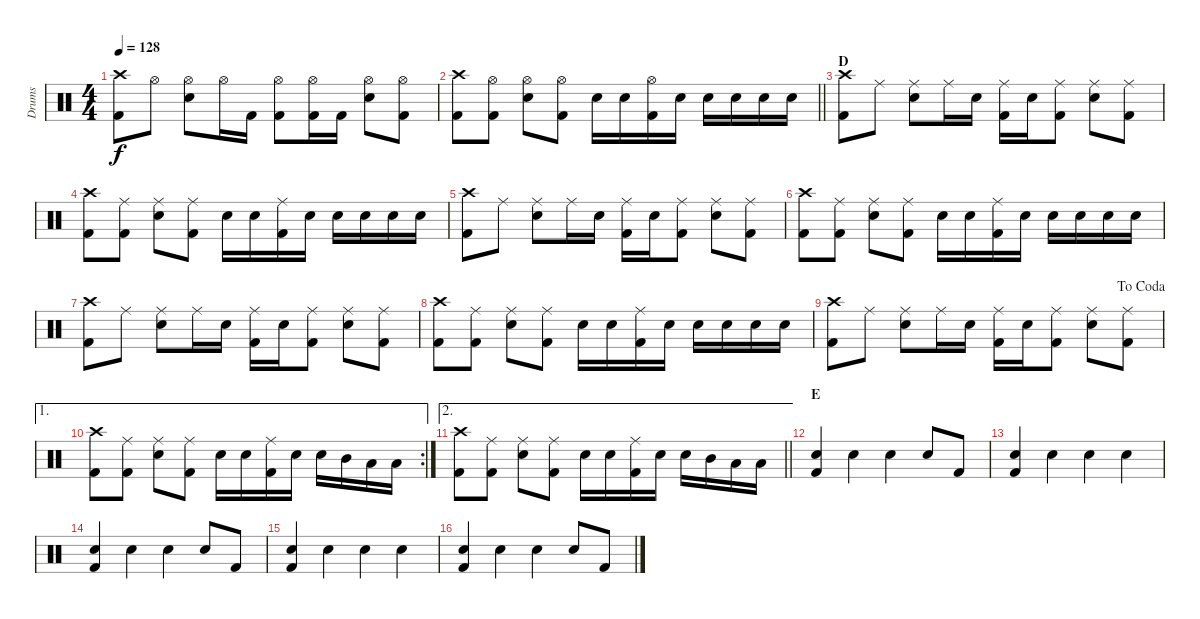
\track ("Drums" "Drums") {instrument percussion}
\staff {score}
\articulation defaults
\ts (4 4)
\tempo 128
\clef neutral
\ks c
("Crash high (hit)" "Kick (hit) 2").8{dy f} "Hi-Hat (open)".8 ("Hi-Hat (open)" "Snare (hit) 2").8 "Hi-Hat (open)".16 "Kick (hit) 2".16 ("Hi-Hat (open)" "Kick (hit) 2").8 ("Hi-Hat (open)" "Kick (hit) 2").16 "Kick (hit) 2".16 ("Hi-Hat (open)" "Snare (hit) 2").8 ("Hi-Hat (open)" "Kick (hit) 2").8 |
\barLineRight lightlight
("Crash high (hit)" "Kick (hit) 2").8 ("Hi-Hat (open)" "Kick (hit) 2").8 ("Hi-Hat (open)" "Snare (hit) 2").8 ("Hi-Hat (open)" "Kick (hit) 2").8 "Snare (hit) 2".16 "Snare (hit) 2".16 ("Hi-Hat (open)" "Kick (hit) 2").16 "Snare (hit) 2".16 "Snare (hit) 2".16 "Snare (hit) 2".16 "Snare (hit) 2".16 "Snare (hit) 2".16 |
\section ("" "D")
("Crash high (hit)" "Kick (hit) 2").8 "Ride (middle)".8 ("Ride (middle)" "Snare (hit) 2").8 "Ride (middle)".16 "Snare (hit) 2".16 ("Ride (middle)" "Kick (hit) 2").16 "Snare (hit) 2".16 ("Ride (middle)" "Kick (hit) 2").8 ("Ride (middle)" "Snare (hit) 2").8 ("Ride (middle)" "Kick (hit) 2").8 |
("Crash high (hit)" "Kick (hit) 2").8 ("Ride (middle)" "Kick (hit) 2").8 ("Ride (middle)" "Snare (hit) 2").8 ("Ride (middle)" "Kick (hit) 2").8 "Snare (hit) 2".16 "Snare (hit) 2".16 ("Ride (middle)" "Kick (hit) 2").16 "Snare (hit) 2".16 "Snare (hit) 2".16 "Snare (hit) 2".16 "Snare (hit) 2".16 "Snare (hit) 2".16 |
("Crash high (hit)" "Kick (hit) 2").8 "Ride (middle)".8 ("Ride (middle)" "Snare (hit) 2").8 "Ride (middle)".16 "Snare (hit) 2".16 ("Ride (middle)" "Kick (hit) 2").16 "Snare (hit) 2".16 ("Ride (middle)" "Kick (hit) 2").8 ("Ride (middle)" "Snare (hit) 2").8 ("Ride (middle)" "Kick (hit) 2").8 |
("Crash high (hit)" "Kick (hit) 2").8 ("Ride (middle)" "Kick (hit) 2").8 ("Ride (middle)" "Snare (hit) 2").8 ("Ride (middle)" "Kick (hit) 2").8 "Snare (hit) 2".16 "Snare (hit) 2".16 ("Ride (middle)" "Kick (hit) 2").16 "Snare (hit) 2".16 "Snare (hit) 2".16 "Snare (hit) 2".16 "Snare (hit) 2".16 "Snare (hit) 2".16 |
("Crash high (hit)" "Kick (hit) 2").8 "Ride (middle)".8 ("Ride (middle)" "Snare (hit) 2").8 "Ride (middle)".16 "Snare (hit) 2".16 ("Ride (middle)" "Kick (hit) 2").16 "Snare (hit) 2".16 ("Ride (middle)" "Kick (hit) 2").8 ("Ride (middle)" "Snare (hit) 2").8 ("Ride (middle)" "Kick (hit) 2").8 |
("Crash high (hit)" "Kick (hit) 2").8 ("Ride (middle)" "Kick (hit) 2").8 ("Ride (middle)" "Snare (hit) 2").8 ("Ride (middle)" "Kick (hit) 2").8 "Snare (hit) 2".16 "Snare (hit) 2".16 ("Ride (middle)" "Kick (hit) 2").16 "Snare (hit) 2".16 "Snare (hit) 2".16 "Snare (hit) 2".16 "Snare (hit) 2".16 "Snare (hit) 2".16 |
\jump dacoda
("Crash high (hit)" "Kick (hit) 2").8 "Ride (middle)".8 ("Ride (middle)" "Snare (hit) 2").8 "Ride (middle)".16 "Snare (hit) 2".16 ("Ride (middle)" "Kick (hit) 2").16 "Snare (hit) 2".16 ("Ride (middle)" "Kick (hit) 2").8 ("Ride (middle)" "Snare (hit) 2").8 ("Ride (middle)" "Kick (hit) 2").8 |
\ae 1
\rc 2
("Crash high (hit)" "Kick (hit) 2").8 ("Ride (middle)" "Kick (hit) 2").8 ("Ride (middle)" "Snare (hit) 2").8 ("Ride (middle)" "Kick (hit) 2").8 "Snare (hit) 2".16 "Snare (hit) 2".16 ("Ride (middle)" "Kick (hit) 2").16 "Snare (hit) 2".16 "Snare (hit) 2".16 "Mid Tom (hit)".16 "Low Tom (hit)".16 "Low Tom (hit)".16 |
\ae 2
\barLineRight lightlight
("Crash high (hit)" "Kick (hit) 2").8 ("Ride (middle)" "Kick (hit) 2").8 ("Ride (middle)" "Snare (hit) 2").8 ("Ride (middle)" "Kick (hit) 2").8 "Snare (hit) 2".16 "Snare (hit) 2".16 ("Ride (middle)" "Kick (hit) 2").16 "Snare (hit) 2".16 "Snare (hit) 2".16 "Mid Tom (hit)".16 "Low Tom (hit)".16 "Low Tom (hit)".16 |
\section ("" "E")
("Metronome (bell)" "Kick (hit) 2").4 "Metronome (bell)".4 "Metronome (bell)".4 "Metronome (bell)".8 "Kick (hit) 2".8 |
("Metronome (bell)" "Kick (hit) 2").4 "Metronome (bell)".4 "Metronome (bell)".4 "Metronome (bell)".4 |
("Metronome (bell)" "Kick (hit) 2").4 "Metronome (bell)".4 "Metronome (bell)".4 "Metronome (bell)".8 "Kick (hit) 2".8 |
("Metronome (bell)" "Kick (hit) 2").4 "Metronome (bell)".4 "Metronome (bell)".4 "Metronome (bell)".4 |
("Metronome (bell)" "Kick (hit) 2").4 "Metronome (bell)".4 "Metronome (bell)".4 "Metronome (bell)".8 "Kick (hit) 2".8
